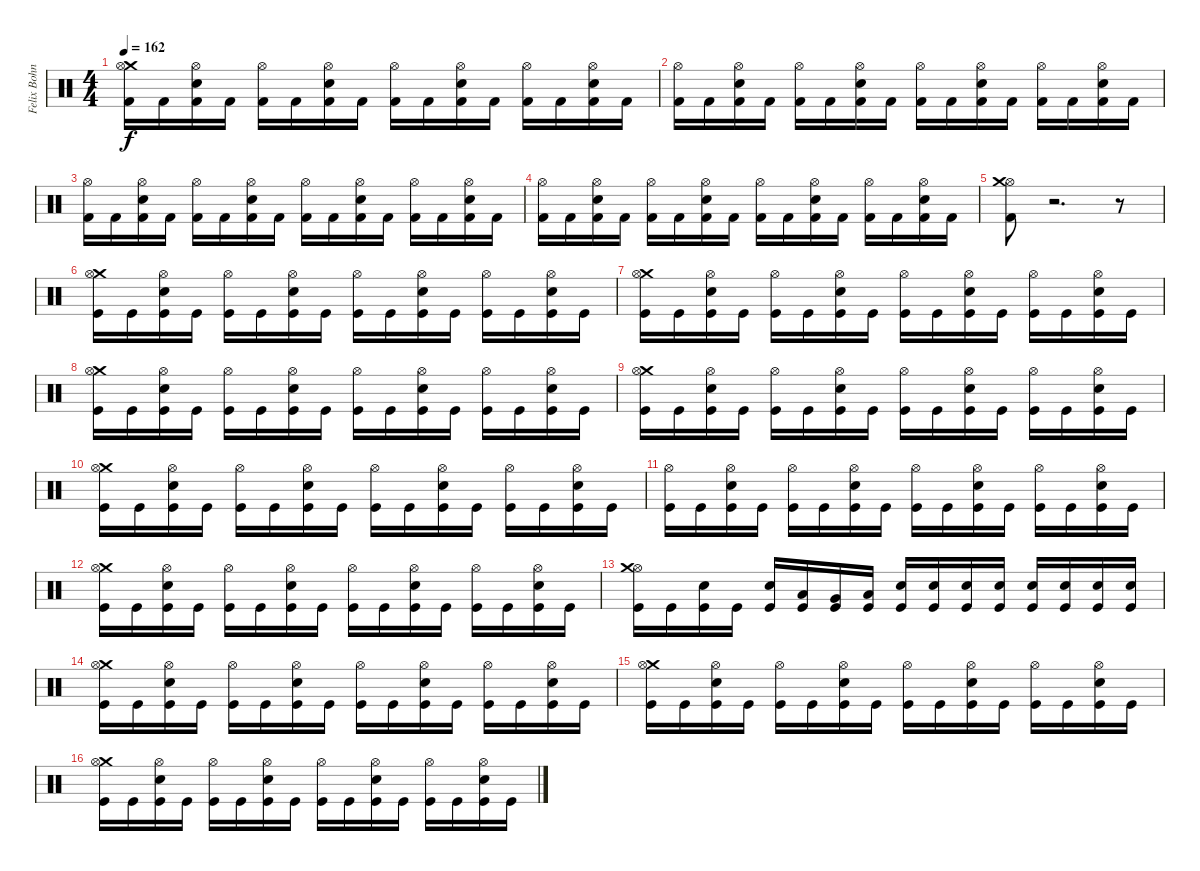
\track ("Felix Bohnke" "Felix Bohn") {instrument percussion}
\staff {score}
\articulation defaults
\ts (4 4)
\tempo 162
\clef neutral
\ks c
("Crash medium (hit)" "Hi-Hat (open)" "Kick (hit) 2").16{dy f} "Kick (hit) 2".16 ("Electric Snare (hit)" "Hi-Hat (open)" "Kick (hit) 2").16 "Kick (hit) 2".16 ("Hi-Hat (open)" "Kick (hit) 2").16 "Kick (hit) 2".16 ("Electric Snare (hit)" "Hi-Hat (open)" "Kick (hit) 2").16 "Kick (hit) 2".16 ("Hi-Hat (open)" "Kick (hit) 2").16 "Kick (hit) 2".16 ("Electric Snare (hit)" "Hi-Hat (open)" "Kick (hit) 2").16 "Kick (hit) 2".16 ("Hi-Hat (open)" "Kick (hit) 2").16 "Kick (hit) 2".16 ("Electric Snare (hit)" "Hi-Hat (open)" "Kick (hit) 2").16 "Kick (hit) 2".16 |
("Hi-Hat (open)" "Kick (hit) 2").16 "Kick (hit) 2".16 ("Electric Snare (hit)" "Hi-Hat (open)" "Kick (hit) 2").16 "Kick (hit) 2".16 ("Hi-Hat (open)" "Kick (hit) 2").16 "Kick (hit) 2".16 ("Electric Snare (hit)" "Hi-Hat (open)" "Kick (hit) 2").16 "Kick (hit) 2".16 ("Hi-Hat (open)" "Kick (hit) 2").16 "Kick (hit) 2".16 ("Electric Snare (hit)" "Hi-Hat (open)" "Kick (hit) 2").16 "Kick (hit) 2".16 ("Hi-Hat (open)" "Kick (hit) 2").16 "Kick (hit) 2".16 ("Electric Snare (hit)" "Hi-Hat (open)" "Kick (hit) 2").16 "Kick (hit) 2".16 |
("Hi-Hat (open)" "Kick (hit) 2").16 "Kick (hit) 2".16 ("Electric Snare (hit)" "Hi-Hat (open)" "Kick (hit) 2").16 "Kick (hit) 2".16 ("Hi-Hat (open)" "Kick (hit) 2").16 "Kick (hit) 2".16 ("Electric Snare (hit)" "Hi-Hat (open)" "Kick (hit) 2").16 "Kick (hit) 2".16 ("Hi-Hat (open)" "Kick (hit) 2").16 "Kick (hit) 2".16 ("Electric Snare (hit)" "Hi-Hat (open)" "Kick (hit) 2").16 "Kick (hit) 2".16 ("Hi-Hat (open)" "Kick (hit) 2").16 "Kick (hit) 2".16 ("Electric Snare (hit)" "Hi-Hat (open)" "Kick (hit) 2").16 "Kick (hit) 2".16 |
("Hi-Hat (open)" "Kick (hit) 2").16 "Kick (hit) 2".16 ("Electric Snare (hit)" "Hi-Hat (open)" "Kick (hit) 2").16 "Kick (hit) 2".16 ("Hi-Hat (open)" "Kick (hit) 2").16 "Kick (hit) 2".16 ("Electric Snare (hit)" "Hi-Hat (open)" "Kick (hit) 2").16 "Kick (hit) 2".16 ("Hi-Hat (open)" "Kick (hit) 2").16 "Kick (hit) 2".16 ("Electric Snare (hit)" "Hi-Hat (open)" "Kick (hit) 2").16 "Kick (hit) 2".16 ("Hi-Hat (open)" "Kick (hit) 2").16 "Kick (hit) 2".16 ("Electric Snare (hit)" "Hi-Hat (open)" "Kick (hit) 2").16 "Kick (hit) 2".16 |
("Hi-Hat (open)" "Crash medium (hit)" "Kick (hit) 2").8 r.2{d} r.8 |
("Crash medium (hit)" "Hi-Hat (open)" "Kick (hit)").16 "Kick (hit)".16 ("Electric Snare (hit)" "Hi-Hat (open)" "Kick (hit)").16 "Kick (hit)".16 ("Hi-Hat (open)" "Kick (hit)").16 "Kick (hit)".16 ("Electric Snare (hit)" "Hi-Hat (open)" "Kick (hit)").16 "Kick (hit)".16 ("Hi-Hat (open)" "Kick (hit)").16 "Kick (hit)".16 ("Electric Snare (hit)" "Hi-Hat (open)" "Kick (hit)").16 "Kick (hit)".16 ("Hi-Hat (open)" "Kick (hit)").16 "Kick (hit)".16 ("Electric Snare (hit)" "Hi-Hat (open)" "Kick (hit)").16 "Kick (hit)".16 |
("Crash medium (hit)" "Hi-Hat (open)" "Kick (hit)").16 "Kick (hit)".16 ("Electric Snare (hit)" "Hi-Hat (open)" "Kick (hit)").16 "Kick (hit)".16 ("Hi-Hat (open)" "Kick (hit)").16 "Kick (hit)".16 ("Electric Snare (hit)" "Hi-Hat (open)" "Kick (hit)").16 "Kick (hit)".16 ("Hi-Hat (open)" "Kick (hit)").16 "Kick (hit)".16 ("Electric Snare (hit)" "Hi-Hat (open)" "Kick (hit)").16 "Kick (hit)".16 ("Hi-Hat (open)" "Kick (hit)").16 "Kick (hit)".16 ("Electric Snare (hit)" "Hi-Hat (open)" "Kick (hit)").16 "Kick (hit)".16 |
("Crash medium (hit)" "Hi-Hat (open)" "Kick (hit)").16 "Kick (hit)".16 ("Electric Snare (hit)" "Hi-Hat (open)" "Kick (hit)").16 "Kick (hit)".16 ("Hi-Hat (open)" "Kick (hit)").16 "Kick (hit)".16 ("Electric Snare (hit)" "Hi-Hat (open)" "Kick (hit)").16 "Kick (hit)".16 ("Hi-Hat (open)" "Kick (hit)").16 "Kick (hit)".16 ("Electric Snare (hit)" "Hi-Hat (open)" "Kick (hit)").16 "Kick (hit)".16 ("Hi-Hat (open)" "Kick (hit)").16 "Kick (hit)".16 ("Electric Snare (hit)" "Hi-Hat (open)" "Kick (hit)").16 "Kick (hit)".16 |
("Crash medium (hit)" "Hi-Hat (open)" "Kick (hit)").16 "Kick (hit)".16 ("Electric Snare (hit)" "Hi-Hat (open)" "Kick (hit)").16 "Kick (hit)".16 ("Hi-Hat (open)" "Kick (hit)").16 "Kick (hit)".16 ("Electric Snare (hit)" "Hi-Hat (open)" "Kick (hit)").16 "Kick (hit)".16 ("Hi-Hat (open)" "Kick (hit)").16 "Kick (hit)".16 ("Electric Snare (hit)" "Hi-Hat (open)" "Kick (hit)").16 "Kick (hit)".16 ("Hi-Hat (open)" "Kick (hit)").16 "Kick (hit)".16 ("Electric Snare (hit)" "Hi-Hat (open)" "Kick (hit)").16 "Kick (hit)".16 |
("Crash medium (hit)" "Hi-Hat (open)" "Kick (hit)").16 "Kick (hit)".16 ("Electric Snare (hit)" "Hi-Hat (open)" "Kick (hit)").16 "Kick (hit)".16 ("Hi-Hat (open)" "Kick (hit)").16 "Kick (hit)".16 ("Electric Snare (hit)" "Hi-Hat (open)" "Kick (hit)").16 "Kick (hit)".16 ("Hi-Hat (open)" "Kick (hit)").16 "Kick (hit)".16 ("Electric Snare (hit)" "Hi-Hat (open)" "Kick (hit)").16 "Kick (hit)".16 ("Hi-Hat (open)" "Kick (hit)").16 "Kick (hit)".16 ("Electric Snare (hit)" "Hi-Hat (open)" "Kick (hit)").16 "Kick (hit)".16 |
("Hi-Hat (open)" "Kick (hit)").16 "Kick (hit)".16 ("Electric Snare (hit)" "Hi-Hat (open)" "Kick (hit)").16 "Kick (hit)".16 ("Hi-Hat (open)" "Kick (hit)").16 "Kick (hit)".16 ("Electric Snare (hit)" "Hi-Hat (open)" "Kick (hit)").16 "Kick (hit)".16 ("Hi-Hat (open)" "Kick (hit)").16 "Kick (hit)".16 ("Electric Snare (hit)" "Hi-Hat (open)" "Kick (hit)").16 "Kick (hit)".16 ("Hi-Hat (open)" "Kick (hit)").16 "Kick (hit)".16 ("Electric Snare (hit)" "Hi-Hat (open)" "Kick (hit)").16 "Kick (hit)".16 |
("Crash medium (hit)" "Hi-Hat (open)" "Kick (hit)").16 "Kick (hit)".16 ("Electric Snare (hit)" "Hi-Hat (open)" "Kick (hit)").16 "Kick (hit)".16 ("Hi-Hat (open)" "Kick (hit)").16 "Kick (hit)".16 ("Electric Snare (hit)" "Hi-Hat (open)" "Kick (hit)").16 "Kick (hit)".16 ("Hi-Hat (open)" "Kick (hit)").16 "Kick (hit)".16 ("Electric Snare (hit)" "Hi-Hat (open)" "Kick (hit)").16 "Kick (hit)".16 ("Hi-Hat (open)" "Kick (hit)").16 "Kick (hit)".16 ("Electric Snare (hit)" "Hi-Hat (open)" "Kick (hit)").16 "Kick (hit)".16 |
("Hi-Hat (open)" "Crash medium (hit)" "Kick (hit)").16 "Kick (hit)".16 ("Electric Snare (hit)" "Kick (hit)").16 "Kick (hit)".16 ("Electric Snare (hit)" "Kick (hit)").16 ("Low Tom (hit)" "Kick (hit)").16 ("Very Low Tom (hit)" "Kick (hit)").16 ("Low Floor Tom (hit)" "Kick (hit)").16 ("Electric Snare (hit)" "Kick (hit)").16 ("Electric Snare (hit)" "Kick (hit)").16 ("Electric Snare (hit)" "Kick (hit)").16 ("Electric Snare (hit)" "Kick (hit)").16 ("Electric Snare (hit)" "Kick (hit)").16 ("Electric Snare (hit)" "Kick (hit)").16 ("Electric Snare (hit)" "Kick (hit)").16 ("Electric Snare (hit)" "Kick (hit)").16 |
("Crash medium (hit)" "Hi-Hat (open)" "Kick (hit)").16 "Kick (hit)".16 ("Electric Snare (hit)" "Hi-Hat (open)" "Kick (hit)").16 "Kick (hit)".16 ("Hi-Hat (open)" "Kick (hit)").16 "Kick (hit)".16 ("Electric Snare (hit)" "Hi-Hat (open)" "Kick (hit)").16 "Kick (hit)".16 ("Hi-Hat (open)" "Kick (hit)").16 "Kick (hit)".16 ("Electric Snare (hit)" "Hi-Hat (open)" "Kick (hit)").16 "Kick (hit)".16 ("Hi-Hat (open)" "Kick (hit)").16 "Kick (hit)".16 ("Electric Snare (hit)" "Hi-Hat (open)" "Kick (hit)").16 "Kick (hit)".16 |
("Crash medium (hit)" "Hi-Hat (open)" "Kick (hit)").16 "Kick (hit)".16 ("Electric Snare (hit)" "Hi-Hat (open)" "Kick (hit)").16 "Kick (hit)".16 ("Hi-Hat (open)" "Kick (hit)").16 "Kick (hit)".16 ("Electric Snare (hit)" "Hi-Hat (open)" "Kick (hit)").16 "Kick (hit)".16 ("Hi-Hat (open)" "Kick (hit)").16 "Kick (hit)".16 ("Electric Snare (hit)" "Hi-Hat (open)" "Kick (hit)").16 "Kick (hit)".16 ("Hi-Hat (open)" "Kick (hit)").16 "Kick (hit)".16 ("Electric Snare (hit)" "Hi-Hat (open)" "Kick (hit)").16 "Kick (hit)".16 |
("Crash medium (hit)" "Hi-Hat (open)" "Kick (hit)").16 "Kick (hit)".16 ("Electric Snare (hit)" "Hi-Hat (open)" "Kick (hit)").16 "Kick (hit)".16 ("Hi-Hat (open)" "Kick (hit)").16 "Kick (hit)".16 ("Electric Snare (hit)" "Hi-Hat (open)" "Kick (hit)").16 "Kick (hit)".16 ("Hi-Hat (open)" "Kick (hit)").16 "Kick (hit)".16 ("Electric Snare (hit)" "Hi-Hat (open)" "Kick (hit)").16 "Kick (hit)".16 ("Hi-Hat (open)" "Kick (hit)").16 "Kick (hit)".16 ("Electric Snare (hit)" "Hi-Hat (open)" "Kick (hit)").16 "Kick (hit)".16
